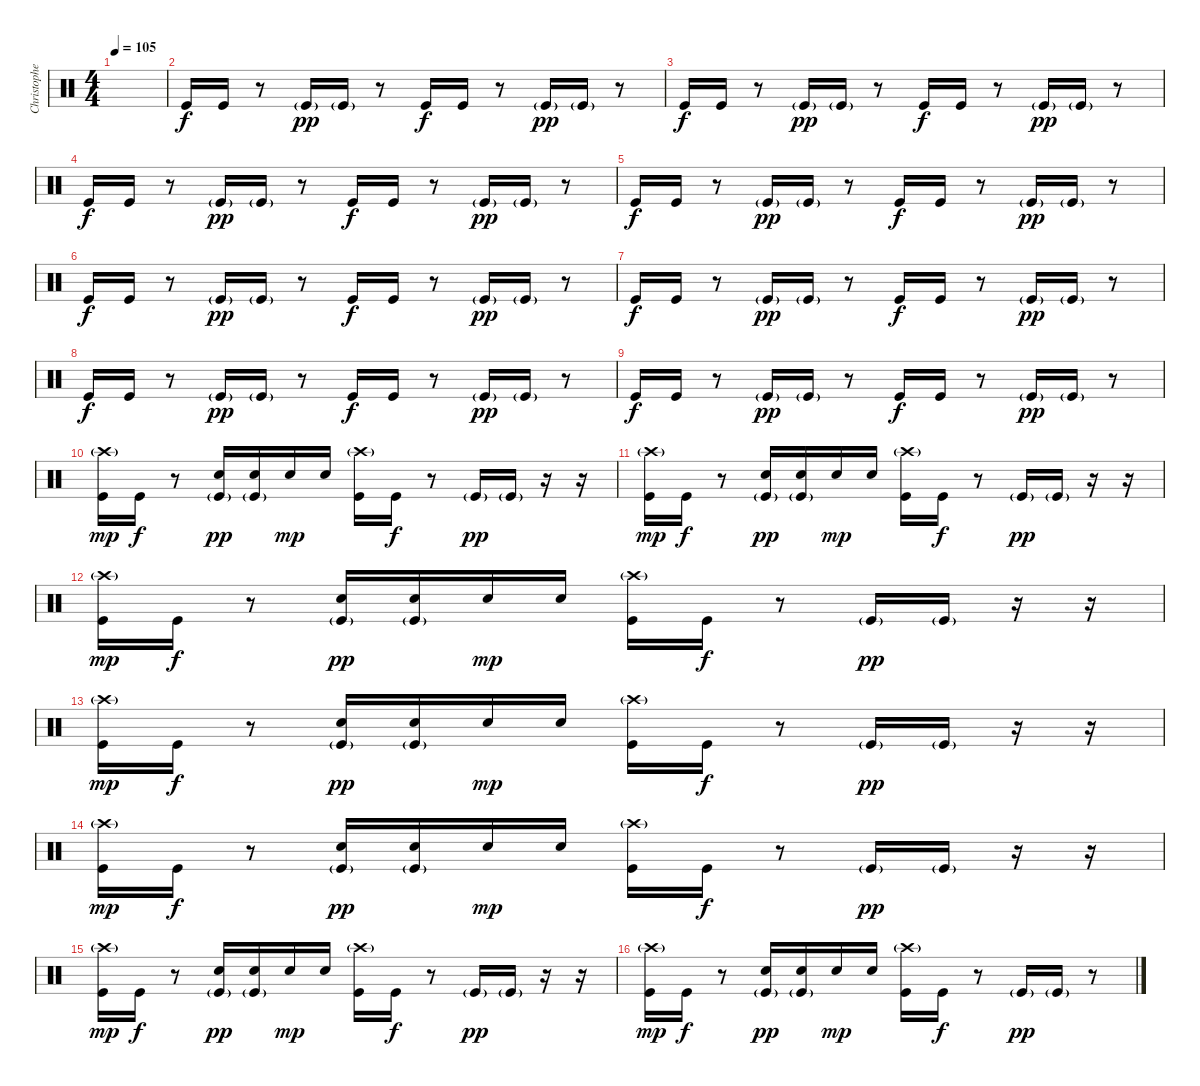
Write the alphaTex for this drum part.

\track ("Christopher - Drums" "Christophe") {instrument percussion}
\staff {score}
\articulation defaults
\ts (4 4)
\tempo 105
\clef neutral
\ks c
|
"Kick (hit)".16 "Kick (hit)".16 r.8 "Kick (hit)"{g}.16{dy pp} "Kick (hit)"{g}.16 r.8 "Kick (hit)".16{dy f} "Kick (hit)".16 r.8 "Kick (hit)"{g}.16{dy pp} "Kick (hit)"{g}.16 r.8 |
"Kick (hit)".16{dy f} "Kick (hit)".16 r.8 "Kick (hit)"{g}.16{dy pp} "Kick (hit)"{g}.16 r.8 "Kick (hit)".16{dy f} "Kick (hit)".16 r.8 "Kick (hit)"{g}.16{dy pp} "Kick (hit)"{g}.16 r.8 |
"Kick (hit)".16{dy f} "Kick (hit)".16 r.8 "Kick (hit)"{g}.16{dy pp} "Kick (hit)"{g}.16 r.8 "Kick (hit)".16{dy f} "Kick (hit)".16 r.8 "Kick (hit)"{g}.16{dy pp} "Kick (hit)"{g}.16 r.8 |
"Kick (hit)".16{dy f} "Kick (hit)".16 r.8 "Kick (hit)"{g}.16{dy pp} "Kick (hit)"{g}.16 r.8 "Kick (hit)".16{dy f} "Kick (hit)".16 r.8 "Kick (hit)"{g}.16{dy pp} "Kick (hit)"{g}.16 r.8 |
"Kick (hit)".16{dy f} "Kick (hit)".16 r.8 "Kick (hit)"{g}.16{dy pp} "Kick (hit)"{g}.16 r.8 "Kick (hit)".16{dy f} "Kick (hit)".16 r.8 "Kick (hit)"{g}.16{dy pp} "Kick (hit)"{g}.16 r.8 |
"Kick (hit)".16{dy f} "Kick (hit)".16 r.8 "Kick (hit)"{g}.16{dy pp} "Kick (hit)"{g}.16 r.8 "Kick (hit)".16{dy f} "Kick (hit)".16 r.8 "Kick (hit)"{g}.16{dy pp} "Kick (hit)"{g}.16 r.8 |
"Kick (hit)".16{dy f} "Kick (hit)".16 r.8 "Kick (hit)"{g}.16{dy pp} "Kick (hit)"{g}.16 r.8 "Kick (hit)".16{dy f} "Kick (hit)".16 r.8 "Kick (hit)"{g}.16{dy pp} "Kick (hit)"{g}.16 r.8 |
"Kick (hit)".16{dy f} "Kick (hit)".16 r.8 "Kick (hit)"{g}.16{dy pp} "Kick (hit)"{g}.16 r.8 "Kick (hit)".16{dy f} "Kick (hit)".16 r.8 "Kick (hit)"{g}.16{dy pp} "Kick (hit)"{g}.16 r.8 |
("Crash high (hit)"{g} "Kick (hit)").16{dy mp} "Kick (hit)".16{dy f} r.8 ("Snare (hit) 2" "Kick (hit)"{g}).16{dy pp} ("Snare (hit) 2" "Kick (hit)"{g}).16 "Snare (hit) 2".16{dy mp} "Snare (hit) 2".16 ("Crash high (hit)"{g} "Kick (hit)").16 "Kick (hit)".16{dy f} r.8 "Kick (hit)"{g}.16{dy pp} "Kick (hit)"{g}.16 r.16 r.16 |
("Crash high (hit)"{g} "Kick (hit)").16{dy mp} "Kick (hit)".16{dy f} r.8 ("Snare (hit) 2" "Kick (hit)"{g}).16{dy pp} ("Snare (hit) 2" "Kick (hit)"{g}).16 "Snare (hit) 2".16{dy mp} "Snare (hit) 2".16 ("Crash high (hit)"{g} "Kick (hit)").16 "Kick (hit)".16{dy f} r.8 "Kick (hit)"{g}.16{dy pp} "Kick (hit)"{g}.16 r.16 r.16 |
("Crash high (hit)"{g} "Kick (hit)").16{dy mp} "Kick (hit)".16{dy f} r.8 ("Snare (hit) 2" "Kick (hit)"{g}).16{dy pp} ("Snare (hit) 2" "Kick (hit)"{g}).16 "Snare (hit) 2".16{dy mp} "Snare (hit) 2".16 ("Crash high (hit)"{g} "Kick (hit)").16 "Kick (hit)".16{dy f} r.8 "Kick (hit)"{g}.16{dy pp} "Kick (hit)"{g}.16 r.16 r.16 |
("Crash high (hit)"{g} "Kick (hit)").16{dy mp} "Kick (hit)".16{dy f} r.8 ("Snare (hit) 2" "Kick (hit)"{g}).16{dy pp} ("Snare (hit) 2" "Kick (hit)"{g}).16 "Snare (hit) 2".16{dy mp} "Snare (hit) 2".16 ("Crash high (hit)"{g} "Kick (hit)").16 "Kick (hit)".16{dy f} r.8 "Kick (hit)"{g}.16{dy pp} "Kick (hit)"{g}.16 r.16 r.16 |
("Crash high (hit)"{g} "Kick (hit)").16{dy mp} "Kick (hit)".16{dy f} r.8 ("Snare (hit) 2" "Kick (hit)"{g}).16{dy pp} ("Snare (hit) 2" "Kick (hit)"{g}).16 "Snare (hit) 2".16{dy mp} "Snare (hit) 2".16 ("Crash high (hit)"{g} "Kick (hit)").16 "Kick (hit)".16{dy f} r.8 "Kick (hit)"{g}.16{dy pp} "Kick (hit)"{g}.16 r.16 r.16 |
("Crash high (hit)"{g} "Kick (hit)").16{dy mp} "Kick (hit)".16{dy f} r.8 ("Snare (hit) 2" "Kick (hit)"{g}).16{dy pp} ("Snare (hit) 2" "Kick (hit)"{g}).16 "Snare (hit) 2".16{dy mp} "Snare (hit) 2".16 ("Crash high (hit)"{g} "Kick (hit)").16 "Kick (hit)".16{dy f} r.8 "Kick (hit)"{g}.16{dy pp} "Kick (hit)"{g}.16 r.16 r.16 |
("Crash high (hit)"{g} "Kick (hit)").16{dy mp} "Kick (hit)".16{dy f} r.8 ("Snare (hit) 2" "Kick (hit)"{g}).16{dy pp} ("Snare (hit) 2" "Kick (hit)"{g}).16 "Snare (hit) 2".16{dy mp} "Snare (hit) 2".16 ("Crash high (hit)"{g} "Kick (hit)").16 "Kick (hit)".16{dy f} r.8 "Kick (hit)"{g}.16{dy pp} "Kick (hit)"{g}.16 r.8
